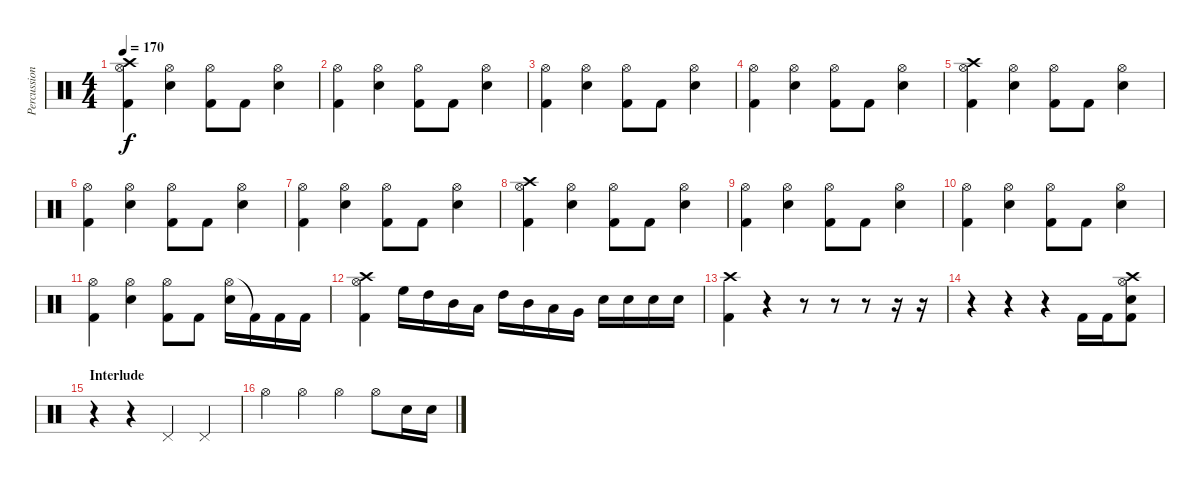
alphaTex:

\track ("Percussion - Who the fuck knows" "Percussion") {instrument percussion}
\staff {score}
\articulation defaults
\ts (4 4)
\tempo 170
\clef neutral
\ks c
("Crash high (hit)" "Kick (hit) 2" "Hi-Hat (open)").4{dy f} ("Hi-Hat (open)" "Snare (hit) 2").4 ("Hi-Hat (open)" "Kick (hit) 2").8 "Kick (hit) 2".8 ("Hi-Hat (open)" "Snare (hit) 2").4 |
("Hi-Hat (open)" "Kick (hit) 2").4 ("Hi-Hat (open)" "Snare (hit) 2").4 ("Hi-Hat (open)" "Kick (hit) 2").8 "Kick (hit) 2".8 ("Hi-Hat (open)" "Snare (hit) 2").4 |
("Hi-Hat (open)" "Kick (hit) 2").4 ("Hi-Hat (open)" "Snare (hit) 2").4 ("Hi-Hat (open)" "Kick (hit) 2").8 "Kick (hit) 2".8 ("Hi-Hat (open)" "Snare (hit) 2").4 |
("Hi-Hat (open)" "Kick (hit) 2").4 ("Hi-Hat (open)" "Snare (hit) 2").4 ("Hi-Hat (open)" "Kick (hit) 2").8 "Kick (hit) 2".8 ("Hi-Hat (open)" "Snare (hit) 2").4 |
("Crash high (hit)" "Kick (hit) 2" "Hi-Hat (open)").4 ("Hi-Hat (open)" "Snare (hit) 2").4 ("Hi-Hat (open)" "Kick (hit) 2").8 "Kick (hit) 2".8 ("Hi-Hat (open)" "Snare (hit) 2").4 |
("Hi-Hat (open)" "Kick (hit) 2").4 ("Hi-Hat (open)" "Snare (hit) 2").4 ("Hi-Hat (open)" "Kick (hit) 2").8 "Kick (hit) 2".8 ("Hi-Hat (open)" "Snare (hit) 2").4 |
("Hi-Hat (open)" "Kick (hit) 2").4 ("Hi-Hat (open)" "Snare (hit) 2").4 ("Hi-Hat (open)" "Kick (hit) 2").8 "Kick (hit) 2".8 ("Hi-Hat (open)" "Snare (hit) 2").4 |
("Crash high (hit)" "Kick (hit) 2" "Hi-Hat (open)").4 ("Hi-Hat (open)" "Snare (hit) 2").4 ("Hi-Hat (open)" "Kick (hit) 2").8 "Kick (hit) 2".8 ("Hi-Hat (open)" "Snare (hit) 2").4 |
("Hi-Hat (open)" "Kick (hit) 2").4 ("Hi-Hat (open)" "Snare (hit) 2").4 ("Hi-Hat (open)" "Kick (hit) 2").8 "Kick (hit) 2".8 ("Hi-Hat (open)" "Snare (hit) 2").4 |
("Hi-Hat (open)" "Kick (hit) 2").4 ("Hi-Hat (open)" "Snare (hit) 2").4 ("Hi-Hat (open)" "Kick (hit) 2").8 "Kick (hit) 2".8 ("Hi-Hat (open)" "Snare (hit) 2").4 |
("Hi-Hat (open)" "Kick (hit) 2").4 ("Hi-Hat (open)" "Snare (hit) 2").4 ("Hi-Hat (open)" "Kick (hit) 2").8 "Kick (hit) 2".8 ("Hi-Hat (open)" "Snare (hit) 2").16 "Kick (hit) 2"{t}.16 "Kick (hit) 2".16 "Kick (hit) 2".16 |
("Crash high (hit)" "Kick (hit) 2" "Hi-Hat (open)").4 "High Floor Tom (hit)".16 "High Tom (hit)".16 "Mid Tom (hit)".16 "Low Tom (hit)".16 "High Tom (hit)".16 "Mid Tom (hit)".16 "Low Tom (hit)".16 "Very Low Tom (hit)".16 "Snare (hit) 2".16 "Snare (hit) 2".16 "Snare (hit) 2".16 "Snare (hit) 2".16 |
("Kick (hit) 2" "Crash high (hit)").4 r.4 r.8 r.8 r.8 r.16 r.16 |
r.4 r.4 r.4 "Kick (hit) 2".16 "Kick (hit) 2".16 ("Crash high (hit)" "Hi-Hat (open)" "Snare (hit) 2" "Kick (hit) 2").8 |
\section ("" "Interlude")
r.4 r.4 "Pedal Hi-Hat (hit)".4 "Pedal Hi-Hat (hit)".4 |
"Hi-Hat (open)".4 "Hi-Hat (open)".4 "Hi-Hat (open)".4 "Hi-Hat (open)".8 "Snare (hit) 2".16 "Snare (hit) 2".16
